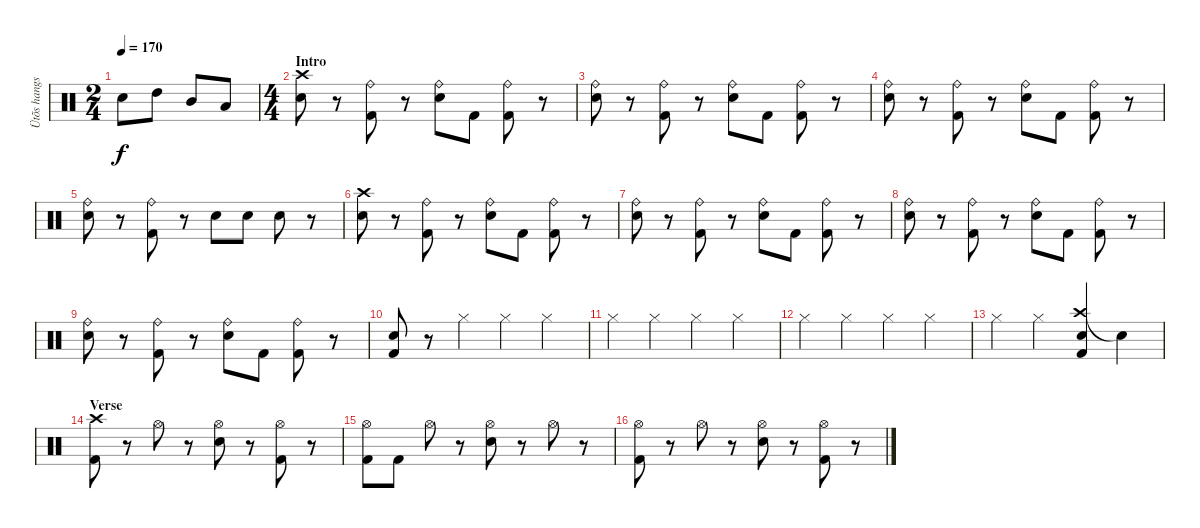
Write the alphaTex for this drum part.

\track ("Ütõs hangszer" "Ütõs hangs") {instrument percussion}
\staff {score}
\articulation defaults
\ts (2 4)
\tempo 170
\clef neutral
\ks c "Snare (hit) 2".8{dy f} "High Tom (hit)".8 "Mid Tom (hit)".8 "Low Tom (hit)".8
|
\ts (4 4)
\section ("" "Intro")
("Crash high (hit)" "Snare (hit) 2").8 r.8 ("Ride (bell)" "Kick (hit) 2").8 r.8 ("Ride (bell)" "Snare (hit) 2").8 "Kick (hit) 2".8 ("Ride (bell)" "Kick (hit) 2").8 r.8 |
("Ride (bell)" "Snare (hit) 2").8 r.8 ("Ride (bell)" "Kick (hit) 2").8 r.8 ("Ride (bell)" "Snare (hit) 2").8 "Kick (hit) 2".8 ("Ride (bell)" "Kick (hit) 2").8 r.8 |
("Ride (bell)" "Snare (hit) 2").8 r.8 ("Ride (bell)" "Kick (hit) 2").8 r.8 ("Ride (bell)" "Snare (hit) 2").8 "Kick (hit) 2".8 ("Ride (bell)" "Kick (hit) 2").8 r.8 |
("Ride (bell)" "Snare (hit) 2").8 r.8 ("Ride (bell)" "Kick (hit) 2").8 r.8 "Snare (hit) 2".8 "Snare (hit) 2".8 "Snare (hit) 2".8 r.8 |
("Crash high (hit)" "Snare (hit) 2").8 r.8 ("Ride (bell)" "Kick (hit) 2").8 r.8 ("Ride (bell)" "Snare (hit) 2").8 "Kick (hit) 2".8 ("Ride (bell)" "Kick (hit) 2").8 r.8 |
("Ride (bell)" "Snare (hit) 2").8 r.8 ("Ride (bell)" "Kick (hit) 2").8 r.8 ("Ride (bell)" "Snare (hit) 2").8 "Kick (hit) 2".8 ("Ride (bell)" "Kick (hit) 2").8 r.8 |
("Ride (bell)" "Snare (hit) 2").8 r.8 ("Ride (bell)" "Kick (hit) 2").8 r.8 ("Ride (bell)" "Snare (hit) 2").8 "Kick (hit) 2".8 ("Ride (bell)" "Kick (hit) 2").8 r.8 |
("Ride (bell)" "Snare (hit) 2").8 r.8 ("Ride (bell)" "Kick (hit) 2").8 r.8 ("Ride (bell)" "Snare (hit) 2").8 "Kick (hit) 2".8 ("Ride (bell)" "Kick (hit) 2").8 r.8 |
("Snare (hit) 2" "Kick (hit) 2").8 r.8 "Hi-Hat (closed)".4 "Hi-Hat (closed)".4 "Hi-Hat (closed)".4 |
"Hi-Hat (closed)".4 "Hi-Hat (closed)".4 "Hi-Hat (closed)".4 "Hi-Hat (closed)".4 |
"Hi-Hat (closed)".4 "Hi-Hat (closed)".4 "Hi-Hat (closed)".4 "Hi-Hat (closed)".4 |
"Hi-Hat (closed)".4 "Hi-Hat (closed)".4 ("Crash high (hit)" "Snare (hit) 2" "Kick (hit) 2").4 "Snare (hit)"{t}.4 |
\section ("" "Verse")
("Crash high (hit)" "Kick (hit) 2").8 r.8 "Hi-Hat (open)".8 r.8 ("Hi-Hat (open)" "Snare (hit) 2").8 r.8 ("Hi-Hat (open)" "Kick (hit) 2").8 r.8 |
("Hi-Hat (open)" "Kick (hit) 2").8 "Kick (hit) 2".8 "Hi-Hat (open)".8 r.8 ("Hi-Hat (open)" "Snare (hit) 2").8 r.8 "Hi-Hat (open)".8 r.8 |
("Hi-Hat (open)" "Kick (hit) 2").8 r.8 "Hi-Hat (open)".8 r.8 ("Hi-Hat (open)" "Snare (hit) 2").8 r.8 ("Hi-Hat (open)" "Kick (hit) 2").8 r.8
